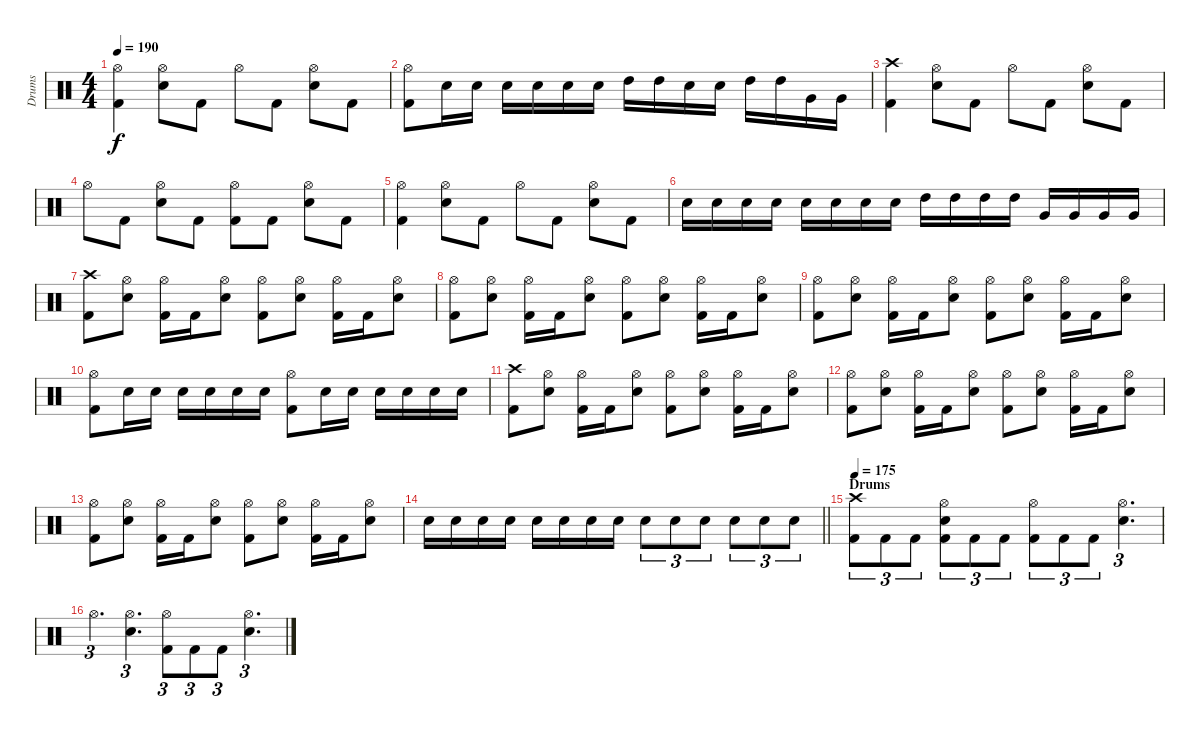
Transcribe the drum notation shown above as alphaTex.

\track ("Drums" "Drums") {instrument percussion}
\staff {score}
\articulation defaults
\ts (4 4)
\tempo 190
\clef neutral
\ks c
("Hi-Hat (open)" "Kick (hit) 2").4{dy f} ("Hi-Hat (open)" "Snare (hit) 2").8 "Kick (hit) 2".8 "Hi-Hat (open)".8 "Kick (hit) 2".8 ("Hi-Hat (open)" "Snare (hit) 2").8 "Kick (hit) 2".8 |
("Hi-Hat (open)" "Kick (hit) 2").8 "Snare (hit) 2".16 "Snare (hit) 2".16 "Snare (hit) 2".16 "Snare (hit) 2".16 "Snare (hit) 2".16 "Snare (hit) 2".16 "High Tom (hit)".16 "High Tom (hit)".16 "Snare (hit) 2".16 "Snare (hit) 2".16 "High Tom (hit)".16 "High Tom (hit)".16 "Very Low Tom (hit)".16 "Very Low Tom (hit)".16 |
("Crash high (hit)" "Kick (hit) 2").4 ("Hi-Hat (open)" "Snare (hit) 2").8 "Kick (hit) 2".8 "Hi-Hat (open)".8 "Kick (hit) 2".8 ("Hi-Hat (open)" "Snare (hit) 2").8 "Kick (hit) 2".8 |
"Hi-Hat (open)".8 "Kick (hit) 2".8 ("Hi-Hat (open)" "Snare (hit) 2").8 "Kick (hit) 2".8 ("Hi-Hat (open)" "Kick (hit) 2").8 "Kick (hit) 2".8 ("Hi-Hat (open)" "Snare (hit) 2").8 "Kick (hit) 2".8 |
("Hi-Hat (open)" "Kick (hit) 2").4 ("Hi-Hat (open)" "Snare (hit) 2").8 "Kick (hit) 2".8 "Hi-Hat (open)".8 "Kick (hit) 2".8 ("Hi-Hat (open)" "Snare (hit) 2").8 "Kick (hit) 2".8 |
"Snare (hit) 2".16 "Snare (hit) 2".16 "Snare (hit) 2".16 "Snare (hit) 2".16 "Snare (hit) 2".16 "Snare (hit) 2".16 "Snare (hit) 2".16 "Snare (hit) 2".16 "High Tom (hit)".16 "High Tom (hit)".16 "High Tom (hit)".16 "High Tom (hit)".16 "Very Low Tom (hit)".16 "Very Low Tom (hit)".16 "Very Low Tom (hit)".16 "Very Low Tom (hit)".16 |
("Crash high (hit)" "Kick (hit) 2").8 ("Hi-Hat (open)" "Snare (hit) 2").8 ("Hi-Hat (open)" "Kick (hit) 2").16 "Kick (hit) 2".16 ("Hi-Hat (open)" "Snare (hit) 2").8 ("Hi-Hat (open)" "Kick (hit) 2").8 ("Hi-Hat (open)" "Snare (hit) 2").8 ("Hi-Hat (open)" "Kick (hit) 2").16 "Kick (hit) 2".16 ("Hi-Hat (open)" "Snare (hit) 2").8 |
("Hi-Hat (open)" "Kick (hit) 2").8 ("Hi-Hat (open)" "Snare (hit) 2").8 ("Hi-Hat (open)" "Kick (hit) 2").16 "Kick (hit) 2".16 ("Hi-Hat (open)" "Snare (hit) 2").8 ("Hi-Hat (open)" "Kick (hit) 2").8 ("Hi-Hat (open)" "Snare (hit) 2").8 ("Hi-Hat (open)" "Kick (hit) 2").16 "Kick (hit) 2".16 ("Hi-Hat (open)" "Snare (hit) 2").8 |
("Hi-Hat (open)" "Kick (hit) 2").8 ("Hi-Hat (open)" "Snare (hit) 2").8 ("Hi-Hat (open)" "Kick (hit) 2").16 "Kick (hit) 2".16 ("Hi-Hat (open)" "Snare (hit) 2").8 ("Hi-Hat (open)" "Kick (hit) 2").8 ("Hi-Hat (open)" "Snare (hit) 2").8 ("Hi-Hat (open)" "Kick (hit) 2").16 "Kick (hit) 2".16 ("Hi-Hat (open)" "Snare (hit) 2").8 |
("Hi-Hat (open)" "Kick (hit) 2").8 "Snare (hit) 2".16 "Snare (hit) 2".16 "Snare (hit) 2".16 "Snare (hit) 2".16 "Snare (hit) 2".16 "Snare (hit) 2".16 ("Hi-Hat (open)" "Kick (hit) 2").8 "Snare (hit) 2".16 "Snare (hit) 2".16 "Snare (hit) 2".16 "Snare (hit) 2".16 "Snare (hit) 2".16 "Snare (hit) 2".16 |
("Crash high (hit)" "Kick (hit) 2").8 ("Hi-Hat (open)" "Snare (hit) 2").8 ("Hi-Hat (open)" "Kick (hit) 2").16 "Kick (hit) 2".16 ("Hi-Hat (open)" "Snare (hit) 2").8 ("Hi-Hat (open)" "Kick (hit) 2").8 ("Hi-Hat (open)" "Snare (hit) 2").8 ("Hi-Hat (open)" "Kick (hit) 2").16 "Kick (hit) 2".16 ("Hi-Hat (open)" "Snare (hit) 2").8 |
("Hi-Hat (open)" "Kick (hit) 2").8 ("Hi-Hat (open)" "Snare (hit) 2").8 ("Hi-Hat (open)" "Kick (hit) 2").16 "Kick (hit) 2".16 ("Hi-Hat (open)" "Snare (hit) 2").8 ("Hi-Hat (open)" "Kick (hit) 2").8 ("Hi-Hat (open)" "Snare (hit) 2").8 ("Hi-Hat (open)" "Kick (hit) 2").16 "Kick (hit) 2".16 ("Hi-Hat (open)" "Snare (hit) 2").8 |
("Hi-Hat (open)" "Kick (hit) 2").8 ("Hi-Hat (open)" "Snare (hit) 2").8 ("Hi-Hat (open)" "Kick (hit) 2").16 "Kick (hit) 2".16 ("Hi-Hat (open)" "Snare (hit) 2").8 ("Hi-Hat (open)" "Kick (hit) 2").8 ("Hi-Hat (open)" "Snare (hit) 2").8 ("Hi-Hat (open)" "Kick (hit) 2").16 "Kick (hit) 2".16 ("Hi-Hat (open)" "Snare (hit) 2").8 |
\barLineRight lightlight "Snare (hit) 2".16 "Snare (hit) 2".16 "Snare (hit) 2".16 "Snare (hit) 2".16 "Snare (hit) 2".16 "Snare (hit) 2".16 "Snare (hit) 2".16 "Snare (hit) 2".16 "Snare (hit) 2".8{tu (3 2)} "Snare (hit) 2".8{tu (3 2)} "Snare (hit) 2".8{tu (3 2)} "Snare (hit) 2".8{tu (3 2)} "Snare (hit) 2".8{tu (3 2)} "Snare (hit) 2".8{tu (3 2)}
|
\section ("" "Drums")
\tempo 175
("Crash high (hit)" "Kick (hit) 2").8{tu (3 2)} "Kick (hit) 2".8{tu (3 2)} "Kick (hit) 2".8{tu (3 2)} ("Hi-Hat (open)" "Snare (hit) 2" "Kick (hit) 2").8{tu (3 2)} "Kick (hit) 2".8{tu (3 2)} "Kick (hit) 2".8{tu (3 2)} ("Hi-Hat (open)" "Kick (hit) 2").8{tu (3 2)} "Kick (hit) 2".8{tu (3 2)} "Kick (hit) 2".8{tu (3 2)} ("Hi-Hat (open)" "Snare (hit) 2").4{d tu (3 2)} |
"Hi-Hat (open)".4{d tu (3 2)} ("Hi-Hat (open)" "Snare (hit) 2").4{d tu (3 2)} ("Hi-Hat (open)" "Kick (hit) 2").8{tu (3 2)} "Kick (hit) 2".8{tu (3 2)} "Kick (hit) 2".8{tu (3 2)} ("Hi-Hat (open)" "Snare (hit) 2").4{d tu (3 2)}
